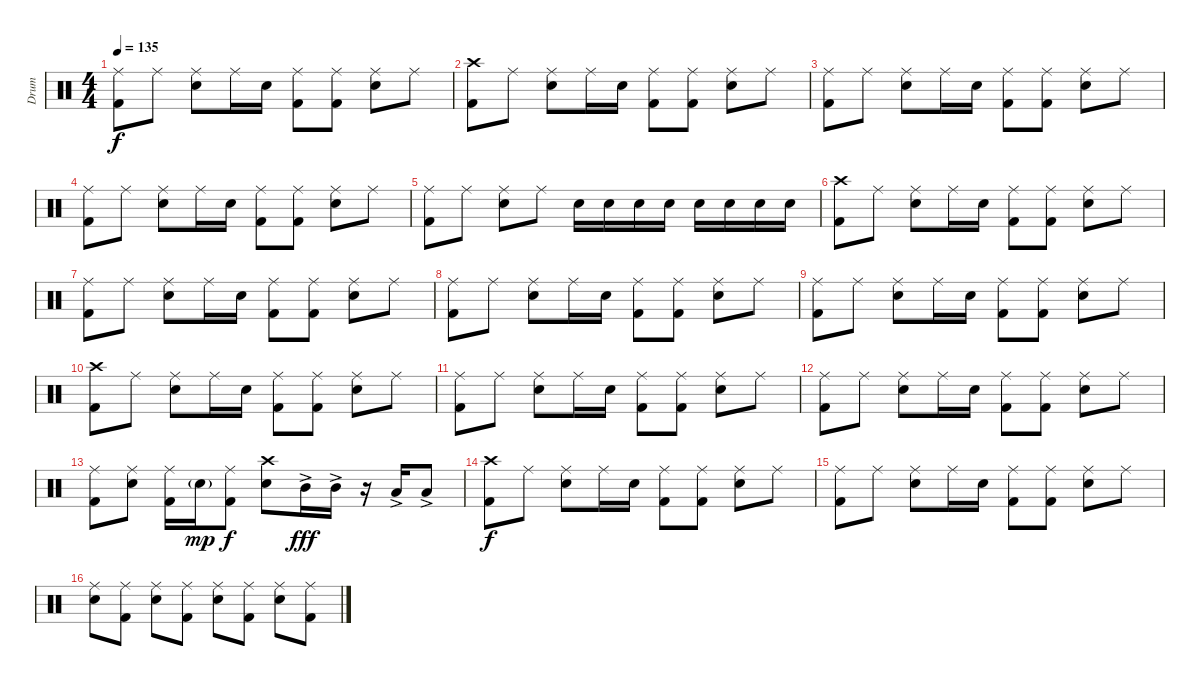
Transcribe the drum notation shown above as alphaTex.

\track ("Drum" "Drum") {instrument percussion}
\staff {score}
\articulation defaults
\ts (4 4)
\tempo 135
\clef neutral
\ks c
("Ride (middle)" "Kick (hit) 2").8{dy f} "Ride (middle)".8 ("Ride (middle)" "Snare (hit) 2").8 "Ride (middle)".16 "Snare (hit) 2".16 ("Ride (middle)" "Kick (hit) 2").8 ("Ride (middle)" "Kick (hit) 2").8 ("Ride (middle)" "Snare (hit) 2").8 "Ride (middle)".8 |
("Crash high (hit)" "Kick (hit) 2").8 "Ride (middle)".8 ("Ride (middle)" "Snare (hit) 2").8 "Ride (middle)".16 "Snare (hit) 2".16 ("Ride (middle)" "Kick (hit) 2").8 ("Ride (middle)" "Kick (hit) 2").8 ("Ride (middle)" "Snare (hit) 2").8 "Ride (middle)".8 |
("Ride (middle)" "Kick (hit) 2").8 "Ride (middle)".8 ("Ride (middle)" "Snare (hit) 2").8 "Ride (middle)".16 "Snare (hit) 2".16 ("Ride (middle)" "Kick (hit) 2").8 ("Ride (middle)" "Kick (hit) 2").8 ("Ride (middle)" "Snare (hit) 2").8 "Ride (middle)".8 |
("Ride (middle)" "Kick (hit) 2").8 "Ride (middle)".8 ("Ride (middle)" "Snare (hit) 2").8 "Ride (middle)".16 "Snare (hit) 2".16 ("Ride (middle)" "Kick (hit) 2").8 ("Ride (middle)" "Kick (hit) 2").8 ("Ride (middle)" "Snare (hit) 2").8 "Ride (middle)".8 |
("Ride (middle)" "Kick (hit) 2").8 "Ride (middle)".8 ("Ride (middle)" "Snare (hit) 2").8 "Ride (middle)".8 "Snare (hit) 2".16{volume 13} "Snare (hit) 2".16{volume 13} "Snare (hit) 2".16{volume 14} "Snare (hit) 2".16{volume 14} "Snare (hit) 2".16{volume 15} "Snare (hit) 2".16{volume 15} "Snare (hit) 2".16 "Snare (hit) 2".16 |
("Crash high (hit)" "Kick (hit) 2").8 "Ride (middle)".8 ("Ride (middle)" "Snare (hit) 2").8 "Ride (middle)".16 "Snare (hit) 2".16 ("Ride (middle)" "Kick (hit) 2").8 ("Ride (middle)" "Kick (hit) 2").8 ("Ride (middle)" "Snare (hit) 2").8 "Ride (middle)".8 |
("Ride (middle)" "Kick (hit) 2").8 "Ride (middle)".8 ("Ride (middle)" "Snare (hit) 2").8 "Ride (middle)".16 "Snare (hit) 2".16 ("Ride (middle)" "Kick (hit) 2").8 ("Ride (middle)" "Kick (hit) 2").8 ("Ride (middle)" "Snare (hit) 2").8 "Ride (middle)".8 |
("Ride (middle)" "Kick (hit) 2").8 "Ride (middle)".8 ("Ride (middle)" "Snare (hit) 2").8 "Ride (middle)".16 "Snare (hit) 2".16 ("Ride (middle)" "Kick (hit) 2").8 ("Ride (middle)" "Kick (hit) 2").8 ("Ride (middle)" "Snare (hit) 2").8 "Ride (middle)".8 |
("Ride (middle)" "Kick (hit) 2").8 "Ride (middle)".8 ("Ride (middle)" "Snare (hit) 2").8 "Ride (middle)".16 "Snare (hit) 2".16 ("Ride (middle)" "Kick (hit) 2").8 ("Ride (middle)" "Kick (hit) 2").8 ("Ride (middle)" "Snare (hit) 2").8 "Ride (middle)".8 |
("Crash high (hit)" "Kick (hit) 2").8 "Ride (middle)".8 ("Ride (middle)" "Snare (hit) 2").8 "Ride (middle)".16 "Snare (hit) 2".16 ("Ride (middle)" "Kick (hit) 2").8 ("Ride (middle)" "Kick (hit) 2").8 ("Ride (middle)" "Snare (hit) 2").8 "Ride (middle)".8 |
("Ride (middle)" "Kick (hit) 2").8 "Ride (middle)".8 ("Ride (middle)" "Snare (hit) 2").8 "Ride (middle)".16 "Snare (hit) 2".16 ("Ride (middle)" "Kick (hit) 2").8 ("Ride (middle)" "Kick (hit) 2").8 ("Ride (middle)" "Snare (hit) 2").8 "Ride (middle)".8 |
("Ride (middle)" "Kick (hit) 2").8 "Ride (middle)".8 ("Ride (middle)" "Snare (hit) 2").8 "Ride (middle)".16 "Snare (hit) 2".16 ("Ride (middle)" "Kick (hit) 2").8 ("Ride (middle)" "Kick (hit) 2").8 ("Ride (middle)" "Snare (hit) 2").8 "Ride (middle)".8 |
("Ride (middle)" "Kick (hit) 2").8 ("Ride (middle)" "Snare (hit) 2").8 ("Ride (middle)" "Kick (hit) 2").16 "Snare (hit) 2"{g}.16{dy mp} ("Ride (middle)" "Kick (hit) 2").8{dy f} ("Crash high (hit)" "Snare (hit) 2").8 "Mid Tom (hit)"{ac}.16{dy fff} "Mid Tom (hit)"{ac}.16 r.16 "Low Tom (hit)"{ac}.16 "Low Tom (hit)"{ac}.8 |
("Crash high (hit)" "Kick (hit) 2").8{dy f} "Ride (middle)".8 ("Ride (middle)" "Snare (hit) 2").8 "Ride (middle)".16 "Snare (hit) 2".16 ("Ride (middle)" "Kick (hit) 2").8 ("Ride (middle)" "Kick (hit) 2").8 ("Ride (middle)" "Snare (hit) 2").8 "Ride (middle)".8 |
("Ride (middle)" "Kick (hit) 2").8 "Ride (middle)".8 ("Ride (middle)" "Snare (hit) 2").8 "Ride (middle)".16 "Snare (hit) 2".16 ("Ride (middle)" "Kick (hit) 2").8 ("Ride (middle)" "Kick (hit) 2").8 ("Ride (middle)" "Snare (hit) 2").8 "Ride (middle)".8 |
("Ride (middle)" "Snare (hit) 2").8 ("Ride (middle)" "Kick (hit) 2").8 ("Ride (middle)" "Snare (hit) 2").8 ("Ride (middle)" "Kick (hit) 2").8 ("Ride (middle)" "Snare (hit) 2").8 ("Ride (middle)" "Kick (hit) 2").8 ("Ride (middle)" "Snare (hit) 2").8 ("Ride (middle)" "Kick (hit) 2").8
